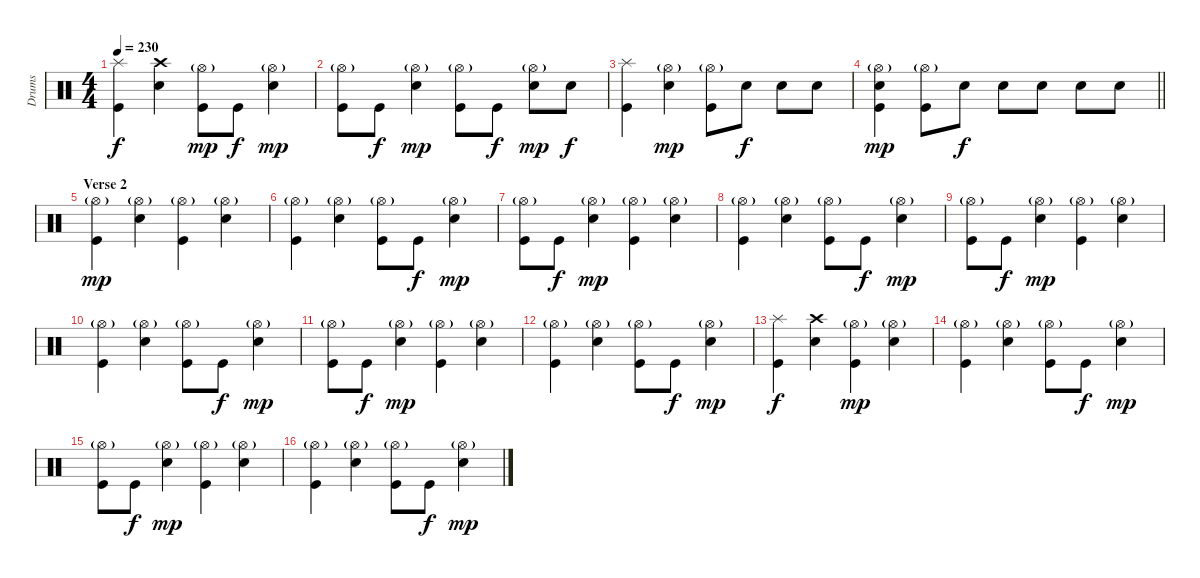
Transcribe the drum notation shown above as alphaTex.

\track ("Drums" "Drums") {instrument percussion}
\staff {score}
\articulation defaults
\ts (4 4)
\tempo 230
\clef neutral
\ks c
("Splash (hit)" "Kick (hit)").4{dy f} ("Crash high (hit)" "Snare (hit) 2").4 ("Hi-Hat (open)"{g} "Kick (hit)").8{dy mp} "Kick (hit)".8{dy f} ("Hi-Hat (open)"{g} "Snare (hit) 2").4{dy mp} |
("Hi-Hat (open)"{g} "Kick (hit)").8 "Kick (hit)".8{dy f} ("Hi-Hat (open)"{g} "Snare (hit) 2").4{dy mp} ("Hi-Hat (open)"{g} "Kick (hit)").8 "Kick (hit)".8{dy f} ("Hi-Hat (open)"{g} "Snare (hit) 2").8{dy mp} "Snare (hit) 2".8{dy f} |
("Splash (hit)" "Kick (hit)").4 ("Hi-Hat (open)"{g} "Snare (hit) 2").4{dy mp} ("Hi-Hat (open)"{g} "Kick (hit)").8 "Snare (hit) 2".8{dy f} "Snare (hit) 2".8 "Snare (hit) 2".8 |
\barLineRight lightlight
("Hi-Hat (open)"{g} "Snare (hit) 2" "Kick (hit)").4{dy mp} ("Hi-Hat (open)"{g} "Kick (hit)").8 "Snare (hit) 2".8{dy f} "Snare (hit) 2".8 "Snare (hit) 2".8 "Snare (hit) 2".8 "Snare (hit) 2".8 |
\section ("" "Verse 2")
("Hi-Hat (open)"{g} "Kick (hit)").4{dy mp} ("Hi-Hat (open)"{g} "Snare (hit) 2").4 ("Hi-Hat (open)"{g} "Kick (hit)").4 ("Hi-Hat (open)"{g} "Snare (hit) 2").4 |
("Hi-Hat (open)"{g} "Kick (hit)").4 ("Hi-Hat (open)"{g} "Snare (hit) 2").4 ("Hi-Hat (open)"{g} "Kick (hit)").8 "Kick (hit)".8{dy f} ("Hi-Hat (open)"{g} "Snare (hit) 2").4{dy mp} |
("Hi-Hat (open)"{g} "Kick (hit)").8 "Kick (hit)".8{dy f} ("Hi-Hat (open)"{g} "Snare (hit) 2").4{dy mp} ("Hi-Hat (open)"{g} "Kick (hit)").4 ("Hi-Hat (open)"{g} "Snare (hit) 2").4 |
("Hi-Hat (open)"{g} "Kick (hit)").4 ("Hi-Hat (open)"{g} "Snare (hit) 2").4 ("Hi-Hat (open)"{g} "Kick (hit)").8 "Kick (hit)".8{dy f} ("Hi-Hat (open)"{g} "Snare (hit) 2").4{dy mp} |
("Hi-Hat (open)"{g} "Kick (hit)").8 "Kick (hit)".8{dy f} ("Hi-Hat (open)"{g} "Snare (hit) 2").4{dy mp} ("Hi-Hat (open)"{g} "Kick (hit)").4 ("Hi-Hat (open)"{g} "Snare (hit) 2").4 |
("Hi-Hat (open)"{g} "Kick (hit)").4 ("Hi-Hat (open)"{g} "Snare (hit) 2").4 ("Hi-Hat (open)"{g} "Kick (hit)").8 "Kick (hit)".8{dy f} ("Hi-Hat (open)"{g} "Snare (hit) 2").4{dy mp} |
("Hi-Hat (open)"{g} "Kick (hit)").8 "Kick (hit)".8{dy f} ("Hi-Hat (open)"{g} "Snare (hit) 2").4{dy mp} ("Hi-Hat (open)"{g} "Kick (hit)").4 ("Hi-Hat (open)"{g} "Snare (hit) 2").4 |
("Hi-Hat (open)"{g} "Kick (hit)").4 ("Hi-Hat (open)"{g} "Snare (hit) 2").4 ("Hi-Hat (open)"{g} "Kick (hit)").8 "Kick (hit)".8{dy f} ("Hi-Hat (open)"{g} "Snare (hit) 2").4{dy mp} |
("Splash (hit)" "Kick (hit)").4{dy f} ("Crash high (hit)" "Snare (hit) 2").4 ("Hi-Hat (open)"{g} "Kick (hit)").4{dy mp} ("Hi-Hat (open)"{g} "Snare (hit) 2").4 |
("Hi-Hat (open)"{g} "Kick (hit)").4 ("Hi-Hat (open)"{g} "Snare (hit) 2").4 ("Hi-Hat (open)"{g} "Kick (hit)").8 "Kick (hit)".8{dy f} ("Hi-Hat (open)"{g} "Snare (hit) 2").4{dy mp} |
("Hi-Hat (open)"{g} "Kick (hit)").8 "Kick (hit)".8{dy f} ("Hi-Hat (open)"{g} "Snare (hit) 2").4{dy mp} ("Hi-Hat (open)"{g} "Kick (hit)").4 ("Hi-Hat (open)"{g} "Snare (hit) 2").4 |
("Hi-Hat (open)"{g} "Kick (hit)").4 ("Hi-Hat (open)"{g} "Snare (hit) 2").4 ("Hi-Hat (open)"{g} "Kick (hit)").8 "Kick (hit)".8{dy f} ("Hi-Hat (open)"{g} "Snare (hit) 2").4{dy mp}
